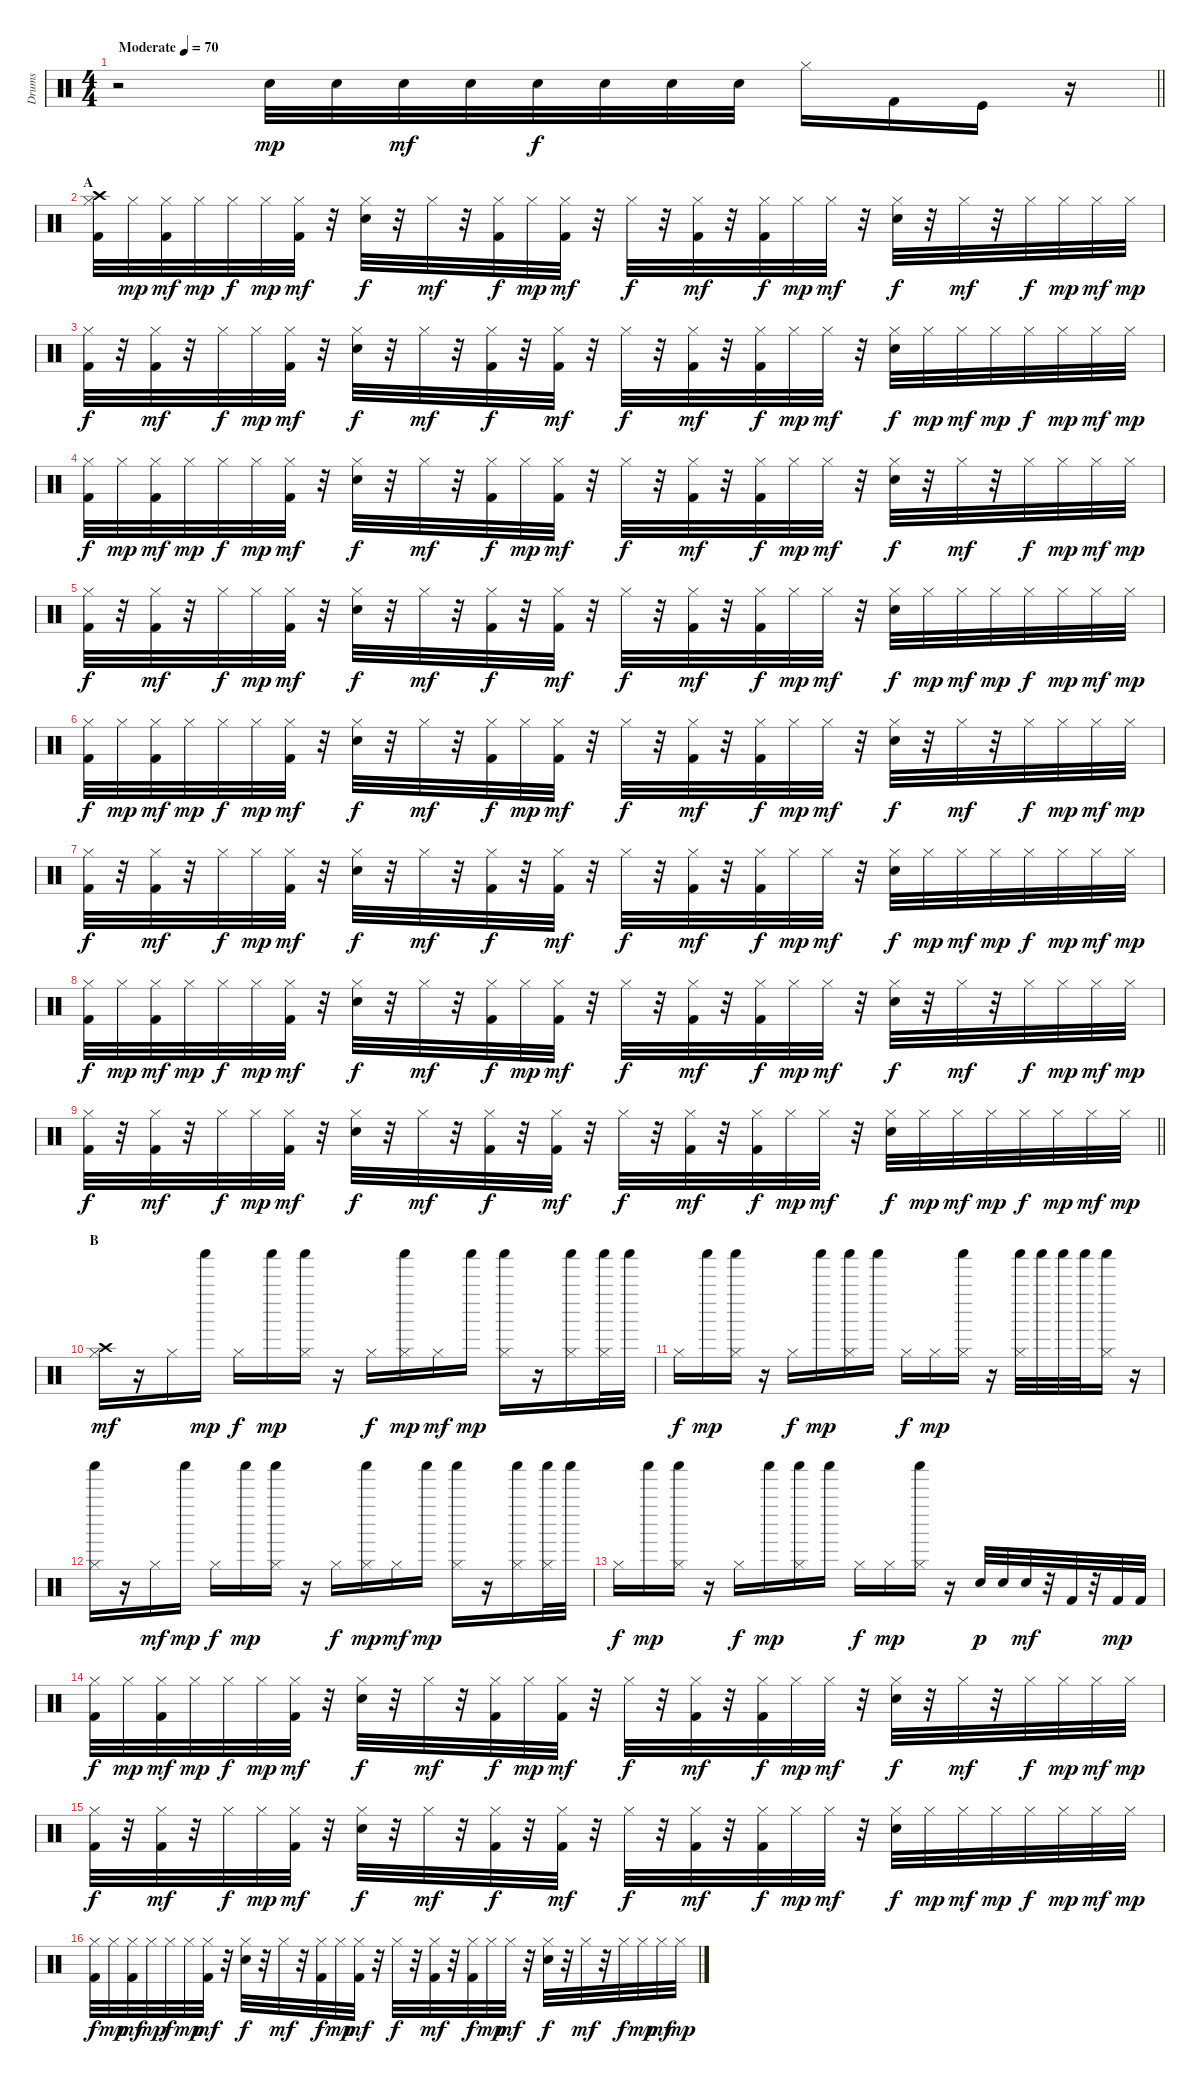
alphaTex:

\track ("Drums" "Drums") {instrument percussion}
\staff
\articulation defaults
\ts (4 4)
\tempo (70 "Moderate")
\clef neutral
\barLineRight lightlight
\ks c
r.2{dy mp} "Electric Snare (hit)".32 "Electric Snare (hit)".32 "Electric Snare (hit)".32{dy mf} "Electric Snare (hit)".32 "Electric Snare (hit)".32{dy f} "Electric Snare (hit)".32 "Electric Snare (hit)".32 "Electric Snare (hit)".32 "Hi-Hat (closed)".16 "Kick (hit) 2".16 "Kick (hit)".16 r.16 |
\section ("" "A")
("Hi-Hat (closed)" "Crash high (hit)" "Kick (hit) 2").32 "Hi-Hat (closed)".32{dy mp} ("Hi-Hat (closed)" "Kick (hit) 2").32{dy mf} "Hi-Hat (closed)".32{dy mp} "Hi-Hat (closed)".32{dy f} "Hi-Hat (closed)".32{dy mp} ("Hi-Hat (closed)" "Kick (hit) 2").32{dy mf} r.32 ("Hi-Hat (closed)" "Electric Snare (hit)").32{dy f} r.32 "Hi-Hat (closed)".32{dy mf} r.32 ("Hi-Hat (closed)" "Kick (hit) 2").32{dy f} "Hi-Hat (closed)".32{dy mp} ("Hi-Hat (closed)" "Kick (hit) 2").32{dy mf} r.32 "Hi-Hat (closed)".32{dy f} r.32 ("Hi-Hat (closed)" "Kick (hit) 2").32{dy mf} r.32 ("Hi-Hat (closed)" "Kick (hit) 2").32{dy f} "Hi-Hat (closed)".32{dy mp} "Hi-Hat (closed)".32{dy mf} r.32 ("Hi-Hat (closed)" "Electric Snare (hit)").32{dy f} r.32 "Hi-Hat (closed)".32{dy mf} r.32 "Hi-Hat (closed)".32{dy f} "Hi-Hat (closed)".32{dy mp} "Hi-Hat (closed)".32{dy mf} "Hi-Hat (closed)".32{dy mp} |
("Hi-Hat (closed)" "Kick (hit) 2").32{dy f} r.32 ("Hi-Hat (closed)" "Kick (hit) 2").32{dy mf} r.32 "Hi-Hat (closed)".32{dy f} "Hi-Hat (closed)".32{dy mp} ("Hi-Hat (closed)" "Kick (hit) 2").32{dy mf} r.32 ("Hi-Hat (closed)" "Electric Snare (hit)").32{dy f} r.32 "Hi-Hat (closed)".32{dy mf} r.32 ("Hi-Hat (closed)" "Kick (hit) 2").32{dy f} r.32 ("Hi-Hat (closed)" "Kick (hit) 2").32{dy mf} r.32 "Hi-Hat (closed)".32{dy f} r.32 ("Hi-Hat (closed)" "Kick (hit) 2").32{dy mf} r.32 ("Hi-Hat (closed)" "Kick (hit) 2").32{dy f} "Hi-Hat (closed)".32{dy mp} "Hi-Hat (closed)".32{dy mf} r.32 ("Hi-Hat (closed)" "Electric Snare (hit)").32{dy f} "Hi-Hat (closed)".32{dy mp} "Hi-Hat (closed)".32{dy mf} "Hi-Hat (closed)".32{dy mp} "Hi-Hat (closed)".32{dy f} "Hi-Hat (closed)".32{dy mp} "Hi-Hat (closed)".32{dy mf} "Hi-Hat (closed)".32{dy mp} |
("Hi-Hat (closed)" "Kick (hit) 2").32{dy f} "Hi-Hat (closed)".32{dy mp} ("Hi-Hat (closed)" "Kick (hit) 2").32{dy mf} "Hi-Hat (closed)".32{dy mp} "Hi-Hat (closed)".32{dy f} "Hi-Hat (closed)".32{dy mp} ("Hi-Hat (closed)" "Kick (hit) 2").32{dy mf} r.32 ("Hi-Hat (closed)" "Electric Snare (hit)").32{dy f} r.32 "Hi-Hat (closed)".32{dy mf} r.32 ("Hi-Hat (closed)" "Kick (hit) 2").32{dy f} "Hi-Hat (closed)".32{dy mp} ("Hi-Hat (closed)" "Kick (hit) 2").32{dy mf} r.32 "Hi-Hat (closed)".32{dy f} r.32 ("Hi-Hat (closed)" "Kick (hit) 2").32{dy mf} r.32 ("Hi-Hat (closed)" "Kick (hit) 2").32{dy f} "Hi-Hat (closed)".32{dy mp} "Hi-Hat (closed)".32{dy mf} r.32 ("Hi-Hat (closed)" "Electric Snare (hit)").32{dy f} r.32 "Hi-Hat (closed)".32{dy mf} r.32 "Hi-Hat (closed)".32{dy f} "Hi-Hat (closed)".32{dy mp} "Hi-Hat (closed)".32{dy mf} "Hi-Hat (closed)".32{dy mp} |
("Hi-Hat (closed)" "Kick (hit) 2").32{dy f} r.32 ("Hi-Hat (closed)" "Kick (hit) 2").32{dy mf} r.32 "Hi-Hat (closed)".32{dy f} "Hi-Hat (closed)".32{dy mp} ("Hi-Hat (closed)" "Kick (hit) 2").32{dy mf} r.32 ("Hi-Hat (closed)" "Electric Snare (hit)").32{dy f} r.32 "Hi-Hat (closed)".32{dy mf} r.32 ("Hi-Hat (closed)" "Kick (hit) 2").32{dy f} r.32 ("Hi-Hat (closed)" "Kick (hit) 2").32{dy mf} r.32 "Hi-Hat (closed)".32{dy f} r.32 ("Hi-Hat (closed)" "Kick (hit) 2").32{dy mf} r.32 ("Hi-Hat (closed)" "Kick (hit) 2").32{dy f} "Hi-Hat (closed)".32{dy mp} "Hi-Hat (closed)".32{dy mf} r.32 ("Hi-Hat (closed)" "Electric Snare (hit)").32{dy f} "Hi-Hat (closed)".32{dy mp} "Hi-Hat (closed)".32{dy mf} "Hi-Hat (closed)".32{dy mp} "Hi-Hat (closed)".32{dy f} "Hi-Hat (closed)".32{dy mp} "Hi-Hat (closed)".32{dy mf} "Hi-Hat (closed)".32{dy mp} |
("Hi-Hat (closed)" "Kick (hit) 2").32{dy f} "Hi-Hat (closed)".32{dy mp} ("Hi-Hat (closed)" "Kick (hit) 2").32{dy mf} "Hi-Hat (closed)".32{dy mp} "Hi-Hat (closed)".32{dy f} "Hi-Hat (closed)".32{dy mp} ("Hi-Hat (closed)" "Kick (hit) 2").32{dy mf} r.32 ("Hi-Hat (closed)" "Electric Snare (hit)").32{dy f} r.32 "Hi-Hat (closed)".32{dy mf} r.32 ("Hi-Hat (closed)" "Kick (hit) 2").32{dy f} "Hi-Hat (closed)".32{dy mp} ("Hi-Hat (closed)" "Kick (hit) 2").32{dy mf} r.32 "Hi-Hat (closed)".32{dy f} r.32 ("Hi-Hat (closed)" "Kick (hit) 2").32{dy mf} r.32 ("Hi-Hat (closed)" "Kick (hit) 2").32{dy f} "Hi-Hat (closed)".32{dy mp} "Hi-Hat (closed)".32{dy mf} r.32 ("Hi-Hat (closed)" "Electric Snare (hit)").32{dy f} r.32 "Hi-Hat (closed)".32{dy mf} r.32 "Hi-Hat (closed)".32{dy f} "Hi-Hat (closed)".32{dy mp} "Hi-Hat (closed)".32{dy mf} "Hi-Hat (closed)".32{dy mp} |
("Hi-Hat (closed)" "Kick (hit) 2").32{dy f} r.32 ("Hi-Hat (closed)" "Kick (hit) 2").32{dy mf} r.32 "Hi-Hat (closed)".32{dy f} "Hi-Hat (closed)".32{dy mp} ("Hi-Hat (closed)" "Kick (hit) 2").32{dy mf} r.32 ("Hi-Hat (closed)" "Electric Snare (hit)").32{dy f} r.32 "Hi-Hat (closed)".32{dy mf} r.32 ("Hi-Hat (closed)" "Kick (hit) 2").32{dy f} r.32 ("Hi-Hat (closed)" "Kick (hit) 2").32{dy mf} r.32 "Hi-Hat (closed)".32{dy f} r.32 ("Hi-Hat (closed)" "Kick (hit) 2").32{dy mf} r.32 ("Hi-Hat (closed)" "Kick (hit) 2").32{dy f} "Hi-Hat (closed)".32{dy mp} "Hi-Hat (closed)".32{dy mf} r.32 ("Hi-Hat (closed)" "Electric Snare (hit)").32{dy f} "Hi-Hat (closed)".32{dy mp} "Hi-Hat (closed)".32{dy mf} "Hi-Hat (closed)".32{dy mp} "Hi-Hat (closed)".32{dy f} "Hi-Hat (closed)".32{dy mp} "Hi-Hat (closed)".32{dy mf} "Hi-Hat (closed)".32{dy mp} |
("Hi-Hat (closed)" "Kick (hit) 2").32{dy f} "Hi-Hat (closed)".32{dy mp} ("Hi-Hat (closed)" "Kick (hit) 2").32{dy mf} "Hi-Hat (closed)".32{dy mp} "Hi-Hat (closed)".32{dy f} "Hi-Hat (closed)".32{dy mp} ("Hi-Hat (closed)" "Kick (hit) 2").32{dy mf} r.32 ("Hi-Hat (closed)" "Electric Snare (hit)").32{dy f} r.32 "Hi-Hat (closed)".32{dy mf} r.32 ("Hi-Hat (closed)" "Kick (hit) 2").32{dy f} "Hi-Hat (closed)".32{dy mp} ("Hi-Hat (closed)" "Kick (hit) 2").32{dy mf} r.32 "Hi-Hat (closed)".32{dy f} r.32 ("Hi-Hat (closed)" "Kick (hit) 2").32{dy mf} r.32 ("Hi-Hat (closed)" "Kick (hit) 2").32{dy f} "Hi-Hat (closed)".32{dy mp} "Hi-Hat (closed)".32{dy mf} r.32 ("Hi-Hat (closed)" "Electric Snare (hit)").32{dy f} r.32 "Hi-Hat (closed)".32{dy mf} r.32 "Hi-Hat (closed)".32{dy f} "Hi-Hat (closed)".32{dy mp} "Hi-Hat (closed)".32{dy mf} "Hi-Hat (closed)".32{dy mp} |
\barLineRight lightlight
("Hi-Hat (closed)" "Kick (hit) 2").32{dy f} r.32 ("Hi-Hat (closed)" "Kick (hit) 2").32{dy mf} r.32 "Hi-Hat (closed)".32{dy f} "Hi-Hat (closed)".32{dy mp} ("Hi-Hat (closed)" "Kick (hit) 2").32{dy mf} r.32 ("Hi-Hat (closed)" "Electric Snare (hit)").32{dy f} r.32 "Hi-Hat (closed)".32{dy mf} r.32 ("Hi-Hat (closed)" "Kick (hit) 2").32{dy f} r.32 ("Hi-Hat (closed)" "Kick (hit) 2").32{dy mf} r.32 "Hi-Hat (closed)".32{dy f} r.32 ("Hi-Hat (closed)" "Kick (hit) 2").32{dy mf} r.32 ("Hi-Hat (closed)" "Kick (hit) 2").32{dy f} "Hi-Hat (closed)".32{dy mp} "Hi-Hat (closed)".32{dy mf} r.32 ("Hi-Hat (closed)" "Electric Snare (hit)").32{dy f} "Hi-Hat (closed)".32{dy mp} "Hi-Hat (closed)".32{dy mf} "Hi-Hat (closed)".32{dy mp} "Hi-Hat (closed)".32{dy f} "Hi-Hat (closed)".32{dy mp} "Hi-Hat (closed)".32{dy mf} "Hi-Hat (closed)".32{dy mp} |
\section ("" "B")
("Hi-Hat (closed)" "Crash high (hit)").16{dy mf} r.16 "Hi-Hat (closed)".16 "Shaker (hit)".16{dy mp} "Hi-Hat (closed)".16{dy f} "Shaker (hit)".16{dy mp} ("Hi-Hat (closed)" "Shaker (hit)").16 r.16 "Hi-Hat (closed)".16{dy f} ("Hi-Hat (closed)" "Shaker (hit)").16{dy mp} "Hi-Hat (closed)".16{dy mf} "Shaker (hit)".16{dy mp} ("Hi-Hat (closed)" "Shaker (hit)").16 r.16 ("Hi-Hat (closed)" "Shaker (hit)").16 ("Hi-Hat (closed)" "Shaker (hit)").32 "Shaker (hit)".32 |
"Hi-Hat (closed)".16{dy f} "Shaker (hit)".16{dy mp} ("Hi-Hat (closed)" "Shaker (hit)").16 r.16 "Hi-Hat (closed)".16{dy f} "Shaker (hit)".16{dy mp} ("Hi-Hat (closed)" "Shaker (hit)").16 "Shaker (hit)".16 "Hi-Hat (closed)".16{dy f} "Hi-Hat (closed)".16{dy mp} ("Hi-Hat (closed)" "Shaker (hit)").16 r.16 ("Hi-Hat (closed)" "Shaker (hit)").32 "Shaker (hit)".32 "Shaker (hit)".32 "Shaker (hit)".32 ("Hi-Hat (closed)" "Shaker (hit)").16 r.16 |
("Hi-Hat (closed)" "Shaker (hit)").16 r.16 "Hi-Hat (closed)".16{dy mf} "Shaker (hit)".16{dy mp} "Hi-Hat (closed)".16{dy f} "Shaker (hit)".16{dy mp} ("Hi-Hat (closed)" "Shaker (hit)").16 r.16 "Hi-Hat (closed)".16{dy f} ("Hi-Hat (closed)" "Shaker (hit)").16{dy mp} "Hi-Hat (closed)".16{dy mf} "Shaker (hit)".16{dy mp} ("Hi-Hat (closed)" "Shaker (hit)").16 r.16 ("Hi-Hat (closed)" "Shaker (hit)").16 ("Hi-Hat (closed)" "Shaker (hit)").32 "Shaker (hit)".32 |
"Hi-Hat (closed)".16{dy f} "Shaker (hit)".16{dy mp} ("Hi-Hat (closed)" "Shaker (hit)").16 r.16 "Hi-Hat (closed)".16{dy f} "Shaker (hit)".16{dy mp} ("Hi-Hat (closed)" "Shaker (hit)").16 "Shaker (hit)".16 "Hi-Hat (closed)".16{dy f} "Hi-Hat (closed)".16{dy mp} ("Hi-Hat (closed)" "Shaker (hit)").16 r.16 "Electric Snare (hit)".32{dy p} "Electric Snare (hit)".32 "Electric Snare (hit)".32{dy mf} r.32 "Kick (hit) 2".32 r.32 "Kick (hit) 2".32{dy mp} "Kick (hit) 2".32 |
("Hi-Hat (closed)" "Kick (hit) 2").32{dy f} "Hi-Hat (closed)".32{dy mp} ("Hi-Hat (closed)" "Kick (hit) 2").32{dy mf} "Hi-Hat (closed)".32{dy mp} "Hi-Hat (closed)".32{dy f} "Hi-Hat (closed)".32{dy mp} ("Hi-Hat (closed)" "Kick (hit) 2").32{dy mf} r.32 ("Hi-Hat (closed)" "Electric Snare (hit)").32{dy f} r.32 "Hi-Hat (closed)".32{dy mf} r.32 ("Hi-Hat (closed)" "Kick (hit) 2").32{dy f} "Hi-Hat (closed)".32{dy mp} ("Hi-Hat (closed)" "Kick (hit) 2").32{dy mf} r.32 "Hi-Hat (closed)".32{dy f} r.32 ("Hi-Hat (closed)" "Kick (hit) 2").32{dy mf} r.32 ("Hi-Hat (closed)" "Kick (hit) 2").32{dy f} "Hi-Hat (closed)".32{dy mp} "Hi-Hat (closed)".32{dy mf} r.32 ("Hi-Hat (closed)" "Electric Snare (hit)").32{dy f} r.32 "Hi-Hat (closed)".32{dy mf} r.32 "Hi-Hat (closed)".32{dy f} "Hi-Hat (closed)".32{dy mp} "Hi-Hat (closed)".32{dy mf} "Hi-Hat (closed)".32{dy mp} |
("Hi-Hat (closed)" "Kick (hit) 2").32{dy f} r.32 ("Hi-Hat (closed)" "Kick (hit) 2").32{dy mf} r.32 "Hi-Hat (closed)".32{dy f} "Hi-Hat (closed)".32{dy mp} ("Hi-Hat (closed)" "Kick (hit) 2").32{dy mf} r.32 ("Hi-Hat (closed)" "Electric Snare (hit)").32{dy f} r.32 "Hi-Hat (closed)".32{dy mf} r.32 ("Hi-Hat (closed)" "Kick (hit) 2").32{dy f} r.32 ("Hi-Hat (closed)" "Kick (hit) 2").32{dy mf} r.32 "Hi-Hat (closed)".32{dy f} r.32 ("Hi-Hat (closed)" "Kick (hit) 2").32{dy mf} r.32 ("Hi-Hat (closed)" "Kick (hit) 2").32{dy f} "Hi-Hat (closed)".32{dy mp} "Hi-Hat (closed)".32{dy mf} r.32 ("Hi-Hat (closed)" "Electric Snare (hit)").32{dy f} "Hi-Hat (closed)".32{dy mp} "Hi-Hat (closed)".32{dy mf} "Hi-Hat (closed)".32{dy mp} "Hi-Hat (closed)".32{dy f} "Hi-Hat (closed)".32{dy mp} "Hi-Hat (closed)".32{dy mf} "Hi-Hat (closed)".32{dy mp} |
("Hi-Hat (closed)" "Kick (hit) 2").32{dy f} "Hi-Hat (closed)".32{dy mp} ("Hi-Hat (closed)" "Kick (hit) 2").32{dy mf} "Hi-Hat (closed)".32{dy mp} "Hi-Hat (closed)".32{dy f} "Hi-Hat (closed)".32{dy mp} ("Hi-Hat (closed)" "Kick (hit) 2").32{dy mf} r.32 ("Hi-Hat (closed)" "Electric Snare (hit)").32{dy f} r.32 "Hi-Hat (closed)".32{dy mf} r.32 ("Hi-Hat (closed)" "Kick (hit) 2").32{dy f} "Hi-Hat (closed)".32{dy mp} ("Hi-Hat (closed)" "Kick (hit) 2").32{dy mf} r.32 "Hi-Hat (closed)".32{dy f} r.32 ("Hi-Hat (closed)" "Kick (hit) 2").32{dy mf} r.32 ("Hi-Hat (closed)" "Kick (hit) 2").32{dy f} "Hi-Hat (closed)".32{dy mp} "Hi-Hat (closed)".32{dy mf} r.32 ("Hi-Hat (closed)" "Electric Snare (hit)").32{dy f} r.32 "Hi-Hat (closed)".32{dy mf} r.32 "Hi-Hat (closed)".32{dy f} "Hi-Hat (closed)".32{dy mp} "Hi-Hat (closed)".32{dy mf} "Hi-Hat (closed)".32{dy mp}
